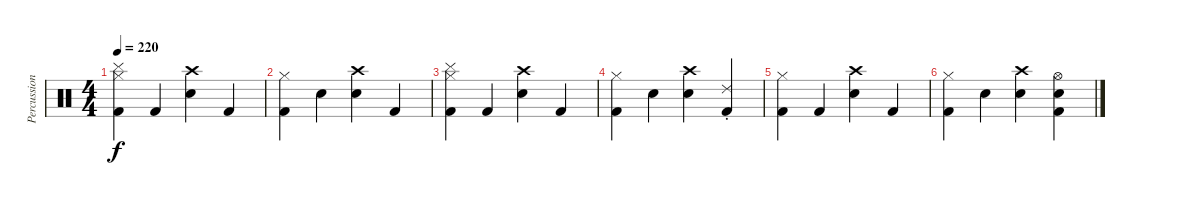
\track ("Percussion" "Percussion") {instrument percussion}
\staff {score}
\articulation defaults
\ts (4 4)
\tempo 220
\clef neutral
\ks c
("Kick (hit) 2" "Hi-Hat (closed)" "Cymbal (hit)").4{dy f} "Kick (hit) 2".4 ("Snare (hit) 2" "Crash high (hit)").4 "Kick (hit) 2".4 |
("Kick (hit) 2" "Hi-Hat (closed)").4 "Hand Clap (hit)".4{volume 16} ("Crash high (hit)" "Hand Clap (hit)").4{volume 16} "Kick (hit) 2".4 |
("Kick (hit) 2" "Hi-Hat (closed)" "Cymbal (hit)").4 "Kick (hit) 2".4 ("Snare (hit) 2" "Crash high (hit)").4 "Kick (hit) 2".4 |
("Kick (hit) 2" "Hi-Hat (closed)").4 "Hand Clap (hit)".4 ("Crash high (hit)" "Hand Clap (hit)").4 ("Kick (hit) 2" "Ride (choke) 2").4 |
("Kick (hit) 2" "Hi-Hat (closed)").4 "Kick (hit) 2".4 ("Snare (hit) 2" "Crash high (hit)").4 "Kick (hit) 2".4 |
("Kick (hit) 2" "Hi-Hat (closed)").4 "Hand Clap (hit)".4{volume 16} ("Crash high (hit)" "Hand Clap (hit)").4{volume 16} ("Kick (hit) 2" "Hi-Hat (open)" "Hand Clap (hit)").4{volume 16}
